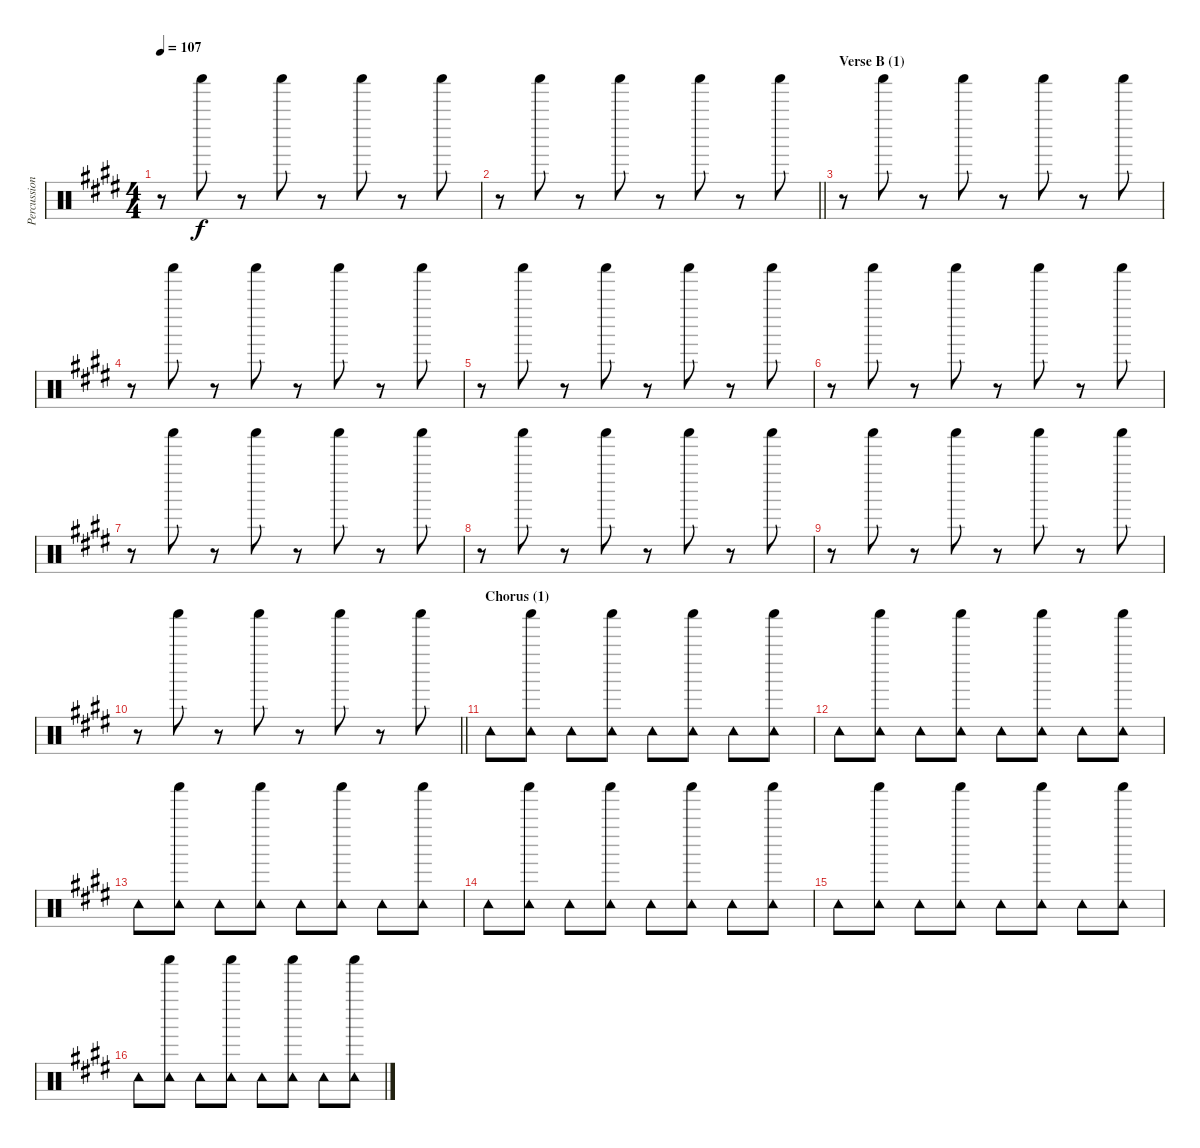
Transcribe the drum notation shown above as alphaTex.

\track ("Percussion" "Percussion") {instrument percussion}
\staff {score}
\articulation defaults
\ts (4 4)
\tempo 107
\clef neutral
\ks e
r.8{dy f} "Shaker (hit)".8 r.8 "Shaker (hit)".8 r.8 "Shaker (hit)".8 r.8 "Shaker (hit)".8 |
\barLineRight lightlight
r.8 "Shaker (hit)".8 r.8 "Shaker (hit)".8 r.8 "Shaker (hit)".8 r.8 "Shaker (hit)".8 |
\section ("" "Verse B (1)")
r.8 "Shaker (hit)".8 r.8 "Shaker (hit)".8 r.8 "Shaker (hit)".8 r.8 "Shaker (hit)".8 |
r.8 "Shaker (hit)".8 r.8 "Shaker (hit)".8 r.8 "Shaker (hit)".8 r.8 "Shaker (hit)".8 |
r.8 "Shaker (hit)".8 r.8 "Shaker (hit)".8 r.8 "Shaker (hit)".8 r.8 "Shaker (hit)".8 |
r.8 "Shaker (hit)".8 r.8 "Shaker (hit)".8 r.8 "Shaker (hit)".8 r.8 "Shaker (hit)".8 |
r.8 "Shaker (hit)".8 r.8 "Shaker (hit)".8 r.8 "Shaker (hit)".8 r.8 "Shaker (hit)".8 |
r.8 "Shaker (hit)".8 r.8 "Shaker (hit)".8 r.8 "Shaker (hit)".8 r.8 "Shaker (hit)".8 |
r.8 "Shaker (hit)".8 r.8 "Shaker (hit)".8 r.8 "Shaker (hit)".8 r.8 "Shaker (hit)".8 |
\barLineRight lightlight
r.8 "Shaker (hit)".8 r.8 "Shaker (hit)".8 r.8 "Shaker (hit)".8 r.8 "Shaker (hit)".8 |
\section ("" "Chorus (1)")
"Tambourine (hit)".8 ("Shaker (hit)" "Tambourine (hit)").8 "Tambourine (hit)".8 ("Shaker (hit)" "Tambourine (hit)").8 "Tambourine (hit)".8 ("Shaker (hit)" "Tambourine (hit)").8 "Tambourine (hit)".8 ("Shaker (hit)" "Tambourine (hit)").8 |
"Tambourine (hit)".8 ("Shaker (hit)" "Tambourine (hit)").8 "Tambourine (hit)".8 ("Shaker (hit)" "Tambourine (hit)").8 "Tambourine (hit)".8 ("Shaker (hit)" "Tambourine (hit)").8 "Tambourine (hit)".8 ("Shaker (hit)" "Tambourine (hit)").8 |
"Tambourine (hit)".8 ("Shaker (hit)" "Tambourine (hit)").8 "Tambourine (hit)".8 ("Shaker (hit)" "Tambourine (hit)").8 "Tambourine (hit)".8 ("Shaker (hit)" "Tambourine (hit)").8 "Tambourine (hit)".8 ("Shaker (hit)" "Tambourine (hit)").8 |
"Tambourine (hit)".8 ("Shaker (hit)" "Tambourine (hit)").8 "Tambourine (hit)".8 ("Shaker (hit)" "Tambourine (hit)").8 "Tambourine (hit)".8 ("Shaker (hit)" "Tambourine (hit)").8 "Tambourine (hit)".8 ("Shaker (hit)" "Tambourine (hit)").8 |
"Tambourine (hit)".8 ("Shaker (hit)" "Tambourine (hit)").8 "Tambourine (hit)".8 ("Shaker (hit)" "Tambourine (hit)").8 "Tambourine (hit)".8 ("Shaker (hit)" "Tambourine (hit)").8 "Tambourine (hit)".8 ("Shaker (hit)" "Tambourine (hit)").8 |
"Tambourine (hit)".8 ("Shaker (hit)" "Tambourine (hit)").8 "Tambourine (hit)".8 ("Shaker (hit)" "Tambourine (hit)").8 "Tambourine (hit)".8 ("Shaker (hit)" "Tambourine (hit)").8 "Tambourine (hit)".8 ("Shaker (hit)" "Tambourine (hit)").8
